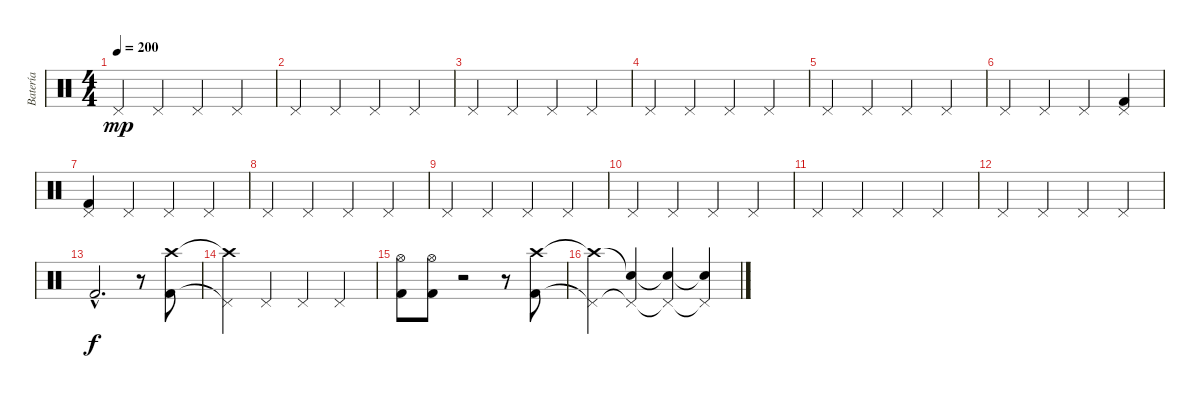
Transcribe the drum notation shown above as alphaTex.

\track ("Batería" "Batería") {instrument percussion}
\staff {score}
\articulation defaults
\ts (4 4)
\tempo 200
\clef neutral
\ks c "Pedal Hi-Hat (hit)".4{dy mp} "Pedal Hi-Hat (hit)".4 "Pedal Hi-Hat (hit)".4 "Pedal Hi-Hat (hit)".4
|
"Pedal Hi-Hat (hit)".4 "Pedal Hi-Hat (hit)".4 "Pedal Hi-Hat (hit)".4 "Pedal Hi-Hat (hit)".4 |
"Pedal Hi-Hat (hit)".4 "Pedal Hi-Hat (hit)".4 "Pedal Hi-Hat (hit)".4 "Pedal Hi-Hat (hit)".4 |
"Pedal Hi-Hat (hit)".4 "Pedal Hi-Hat (hit)".4 "Pedal Hi-Hat (hit)".4 "Pedal Hi-Hat (hit)".4 |
"Pedal Hi-Hat (hit)".4 "Pedal Hi-Hat (hit)".4 "Pedal Hi-Hat (hit)".4 "Pedal Hi-Hat (hit)".4 |
"Pedal Hi-Hat (hit)".4 "Pedal Hi-Hat (hit)".4 "Pedal Hi-Hat (hit)".4 ("Pedal Hi-Hat (hit)" "Kick (hit) 2").4 |
("Pedal Hi-Hat (hit)" "Kick (hit) 2").4 "Pedal Hi-Hat (hit)".4 "Pedal Hi-Hat (hit)".4 "Pedal Hi-Hat (hit)".4 |
"Pedal Hi-Hat (hit)".4 "Pedal Hi-Hat (hit)".4 "Pedal Hi-Hat (hit)".4 "Pedal Hi-Hat (hit)".4 |
"Pedal Hi-Hat (hit)".4 "Pedal Hi-Hat (hit)".4 "Pedal Hi-Hat (hit)".4 "Pedal Hi-Hat (hit)".4 |
"Pedal Hi-Hat (hit)".4 "Pedal Hi-Hat (hit)".4 "Pedal Hi-Hat (hit)".4 "Pedal Hi-Hat (hit)".4 |
"Pedal Hi-Hat (hit)".4 "Pedal Hi-Hat (hit)".4 "Pedal Hi-Hat (hit)".4 "Pedal Hi-Hat (hit)".4 |
"Pedal Hi-Hat (hit)".4 "Pedal Hi-Hat (hit)".4 "Pedal Hi-Hat (hit)".4 "Pedal Hi-Hat (hit)".4 |
"Kick (hit) 2"{hac}.2{d dy f} r.8 ("Kick (hit) 2" "Crash high (hit)").8 |
("Pedal Hi-Hat (hit)"{t} "Crash high (hit)"{t}).4 "Pedal Hi-Hat (hit)".4 "Pedal Hi-Hat (hit)".4 "Pedal Hi-Hat (hit)".4 |
("Kick (hit) 2" "Hi-Hat (open)").8 ("Kick (hit) 2" "Hi-Hat (open)").8 r.2 r.8 ("Kick (hit) 2" "Crash high (hit)").8 |
("Pedal Hi-Hat (hit)"{t} "Crash high (hit)"{t}).4 ("Pedal Hi-Hat (hit)"{t} "Snare (hit)"{t}).4 ("Pedal Hi-Hat (hit)"{t} "Snare (hit)"{t}).4 ("Pedal Hi-Hat (hit)"{t} "Snare (hit)"{t}).4
